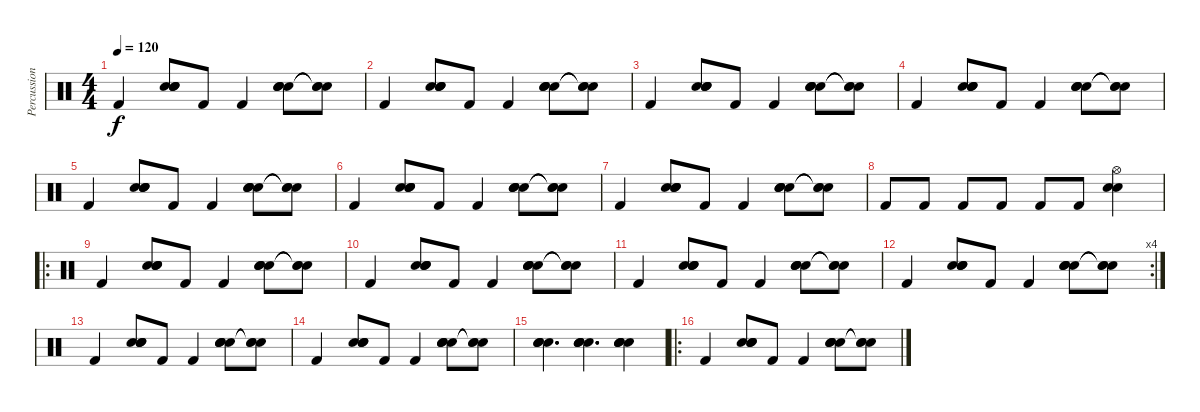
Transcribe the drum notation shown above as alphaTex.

\track ("Percussion" "Percussion") {instrument percussion}
\staff {score}
\articulation defaults
\ts (4 4)
\tempo 120
\clef neutral
\ks c "Kick (hit) 2".4{dy f}
("Snare (hit) 2" "Snare (hit) 2" "Electric Snare (hit)" "Electric Snare (hit)").8 "Kick (hit) 2".8 "Kick (hit) 2".4 ("Snare (hit) 2" "Snare (hit) 2" "Electric Snare (hit)" "Electric Snare (hit)").8 ("Snare (hit)"{t} "Snare (hit)"{t} "Snare (hit)"{t}).8 |
"Kick (hit) 2".4 ("Snare (hit) 2" "Snare (hit) 2" "Electric Snare (hit)" "Electric Snare (hit)").8 "Kick (hit) 2".8 "Kick (hit) 2".4 ("Snare (hit) 2" "Snare (hit) 2" "Electric Snare (hit)" "Electric Snare (hit)").8 ("Snare (hit)"{t} "Snare (hit)"{t} "Snare (hit)"{t}).8 |
"Kick (hit) 2".4 ("Snare (hit) 2" "Snare (hit) 2" "Electric Snare (hit)" "Electric Snare (hit)").8 "Kick (hit) 2".8 "Kick (hit) 2".4 ("Snare (hit) 2" "Snare (hit) 2" "Electric Snare (hit)" "Electric Snare (hit)").8 ("Snare (hit)"{t} "Snare (hit)"{t} "Snare (hit)"{t}).8 |
"Kick (hit) 2".4 ("Snare (hit) 2" "Snare (hit) 2" "Electric Snare (hit)" "Electric Snare (hit)").8 "Kick (hit) 2".8 "Kick (hit) 2".4 ("Snare (hit) 2" "Snare (hit) 2" "Electric Snare (hit)" "Electric Snare (hit)").8 ("Snare (hit)"{t} "Snare (hit)"{t} "Snare (hit)"{t}).8 |
"Kick (hit) 2".4 ("Snare (hit) 2" "Snare (hit) 2" "Electric Snare (hit)" "Electric Snare (hit)").8 "Kick (hit) 2".8 "Kick (hit) 2".4 ("Snare (hit) 2" "Snare (hit) 2" "Electric Snare (hit)" "Electric Snare (hit)").8 ("Snare (hit)"{t} "Snare (hit)"{t} "Snare (hit)"{t}).8 |
"Kick (hit) 2".4 ("Snare (hit) 2" "Snare (hit) 2" "Electric Snare (hit)" "Electric Snare (hit)").8 "Kick (hit) 2".8 "Kick (hit) 2".4 ("Snare (hit) 2" "Snare (hit) 2" "Electric Snare (hit)" "Electric Snare (hit)").8 ("Snare (hit)"{t} "Snare (hit)"{t} "Snare (hit)"{t}).8 |
"Kick (hit) 2".4 ("Snare (hit) 2" "Snare (hit) 2" "Electric Snare (hit)" "Electric Snare (hit)").8 "Kick (hit) 2".8 "Kick (hit) 2".4 ("Snare (hit) 2" "Snare (hit) 2" "Electric Snare (hit)" "Electric Snare (hit)").8 ("Snare (hit)"{t} "Snare (hit)"{t} "Snare (hit)"{t}).8 |
"Kick (hit) 2".8 "Kick (hit) 2".8 "Kick (hit) 2".8 "Kick (hit) 2".8 "Kick (hit) 2".8 "Kick (hit) 2".8 ("Hi-Hat (open)" "Snare (hit) 2" "Electric Snare (hit)").4 |
\ro "Kick (hit) 2".4
("Snare (hit) 2" "Snare (hit) 2" "Electric Snare (hit)" "Electric Snare (hit)").8 "Kick (hit) 2".8 "Kick (hit) 2".4 ("Snare (hit) 2" "Snare (hit) 2" "Electric Snare (hit)" "Electric Snare (hit)").8 ("Snare (hit)"{t} "Snare (hit)"{t} "Snare (hit)"{t}).8 |
"Kick (hit) 2".4 ("Snare (hit) 2" "Snare (hit) 2" "Electric Snare (hit)" "Electric Snare (hit)").8 "Kick (hit) 2".8 "Kick (hit) 2".4 ("Snare (hit) 2" "Snare (hit) 2" "Electric Snare (hit)" "Electric Snare (hit)").8 ("Snare (hit)"{t} "Snare (hit)"{t} "Snare (hit)"{t}).8 |
"Kick (hit) 2".4 ("Snare (hit) 2" "Snare (hit) 2" "Electric Snare (hit)" "Electric Snare (hit)").8 "Kick (hit) 2".8 "Kick (hit) 2".4 ("Snare (hit) 2" "Snare (hit) 2" "Electric Snare (hit)" "Electric Snare (hit)").8 ("Snare (hit)"{t} "Snare (hit)"{t} "Snare (hit)"{t}).8 |
\rc 4 "Kick (hit) 2".4
("Snare (hit) 2" "Snare (hit) 2" "Electric Snare (hit)" "Electric Snare (hit)").8 "Kick (hit) 2".8 "Kick (hit) 2".4 ("Snare (hit) 2" "Snare (hit) 2" "Electric Snare (hit)" "Electric Snare (hit)").8 ("Snare (hit)"{t} "Snare (hit)"{t} "Snare (hit)"{t}).8 |
"Kick (hit) 2".4 ("Snare (hit) 2" "Snare (hit) 2" "Electric Snare (hit)" "Electric Snare (hit)").8 "Kick (hit) 2".8 "Kick (hit) 2".4 ("Snare (hit) 2" "Snare (hit) 2" "Electric Snare (hit)" "Electric Snare (hit)").8 ("Snare (hit)"{t} "Snare (hit)"{t} "Snare (hit)"{t}).8 |
"Kick (hit) 2".4 ("Snare (hit) 2" "Snare (hit) 2" "Electric Snare (hit)" "Electric Snare (hit)").8 "Kick (hit) 2".8 "Kick (hit) 2".4 ("Snare (hit) 2" "Snare (hit) 2" "Electric Snare (hit)" "Electric Snare (hit)").8 ("Snare (hit)"{t} "Snare (hit)"{t} "Snare (hit)"{t}).8 |
("Snare (hit) 2" "Snare (hit) 2" "Electric Snare (hit)" "Electric Snare (hit)").4{d} ("Snare (hit) 2" "Snare (hit) 2" "Electric Snare (hit)" "Electric Snare (hit)").4{d} ("Snare (hit) 2" "Snare (hit) 2" "Electric Snare (hit)" "Electric Snare (hit)").4 |
\ro "Kick (hit) 2".4
("Snare (hit) 2" "Snare (hit) 2" "Electric Snare (hit)" "Electric Snare (hit)").8 "Kick (hit) 2".8 "Kick (hit) 2".4 ("Snare (hit) 2" "Snare (hit) 2" "Electric Snare (hit)" "Electric Snare (hit)").8 ("Snare (hit)"{t} "Snare (hit)"{t} "Snare (hit)"{t}).8
